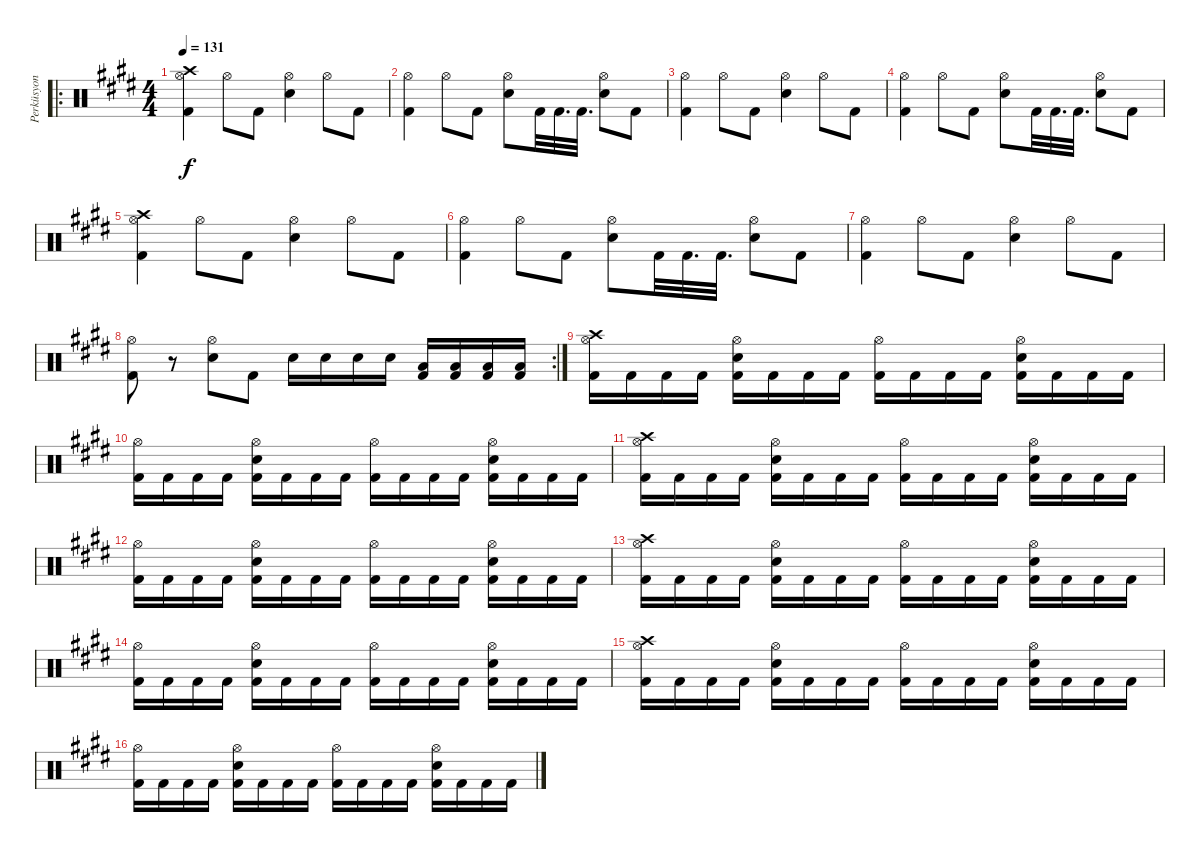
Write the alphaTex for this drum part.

\track ("Perküsyon" "Perküsyon") {instrument percussion}
\staff {score}
\articulation defaults
\ro
\ts (4 4)
\tempo 131
\clef neutral
\ks e
("Hi-Hat (open)" "Crash high (hit)" "Kick (hit) 2").4{dy f} "Hi-Hat (open)".8 "Kick (hit) 2".8 ("Hi-Hat (open)" "Snare (hit) 2").4 "Hi-Hat (open)".8 "Kick (hit) 2".8 |
\ks c#minor
("Hi-Hat (open)" "Kick (hit) 2").4 "Hi-Hat (open)".8 "Kick (hit) 2".8 ("Hi-Hat (open)" "Snare (hit) 2").8 "Kick (hit) 2".32 "Kick (hit) 2".32{d} "Kick (hit) 2".32{d} ("Hi-Hat (open)" "Snare (hit) 2").8 "Kick (hit) 2".8 |
\ks e
("Hi-Hat (open)" "Kick (hit) 2").4 "Hi-Hat (open)".8 "Kick (hit) 2".8 ("Hi-Hat (open)" "Snare (hit) 2").4 "Hi-Hat (open)".8 "Kick (hit) 2".8 |
\ks c#minor
("Hi-Hat (open)" "Kick (hit) 2").4 "Hi-Hat (open)".8 "Kick (hit) 2".8 ("Hi-Hat (open)" "Snare (hit) 2").8 "Kick (hit) 2".32 "Kick (hit) 2".32{d} "Kick (hit) 2".32{d} ("Hi-Hat (open)" "Snare (hit) 2").8 "Kick (hit) 2".8 |
\ks e
("Hi-Hat (open)" "Crash high (hit)" "Kick (hit) 2").4 "Hi-Hat (open)".8 "Kick (hit) 2".8 ("Hi-Hat (open)" "Snare (hit) 2").4 "Hi-Hat (open)".8 "Kick (hit) 2".8 |
\ks c#minor
("Hi-Hat (open)" "Kick (hit) 2").4 "Hi-Hat (open)".8 "Kick (hit) 2".8 ("Hi-Hat (open)" "Snare (hit) 2").8 "Kick (hit) 2".32 "Kick (hit) 2".32{d} "Kick (hit) 2".32{d} ("Hi-Hat (open)" "Snare (hit) 2").8 "Kick (hit) 2".8 |
\ks e
("Hi-Hat (open)" "Kick (hit) 2").4 "Hi-Hat (open)".8 "Kick (hit) 2".8 ("Hi-Hat (open)" "Snare (hit) 2").4 "Hi-Hat (open)".8 "Kick (hit) 2".8 |
\rc 2
\ks c#minor
("Hi-Hat (open)" "Kick (hit) 2").8 r.8 ("Hi-Hat (open)" "Snare (hit) 2").8 "Kick (hit) 2".8 "Snare (hit) 2".16 "Snare (hit) 2".16 "Snare (hit) 2".16 "Snare (hit) 2".16 ("Low Tom (hit)" "Kick (hit) 2").16 ("Low Tom (hit)" "Kick (hit) 2").16 ("Low Tom (hit)" "Kick (hit) 2").16 ("Low Tom (hit)" "Kick (hit) 2").16 |
\ks e
("Crash high (hit)" "Hi-Hat (open)" "Kick (hit) 2").16 "Kick (hit) 2".16 "Kick (hit) 2".16 "Kick (hit) 2".16 ("Hi-Hat (open)" "Snare (hit) 2" "Kick (hit) 2").16 "Kick (hit) 2".16 "Kick (hit) 2".16 "Kick (hit) 2".16 ("Hi-Hat (open)" "Kick (hit) 2").16 "Kick (hit) 2".16 "Kick (hit) 2".16 "Kick (hit) 2".16 ("Hi-Hat (open)" "Snare (hit) 2" "Kick (hit) 2").16 "Kick (hit) 2".16 "Kick (hit) 2".16 "Kick (hit) 2".16 |
\ks c#minor
("Hi-Hat (open)" "Kick (hit) 2").16 "Kick (hit) 2".16 "Kick (hit) 2".16 "Kick (hit) 2".16 ("Hi-Hat (open)" "Snare (hit) 2" "Kick (hit) 2").16 "Kick (hit) 2".16 "Kick (hit) 2".16 "Kick (hit) 2".16 ("Hi-Hat (open)" "Kick (hit) 2").16 "Kick (hit) 2".16 "Kick (hit) 2".16 "Kick (hit) 2".16 ("Hi-Hat (open)" "Snare (hit) 2" "Kick (hit) 2").16 "Kick (hit) 2".16 "Kick (hit) 2".16 "Kick (hit) 2".16 |
\ks e
("Crash high (hit)" "Hi-Hat (open)" "Kick (hit) 2").16 "Kick (hit) 2".16 "Kick (hit) 2".16 "Kick (hit) 2".16 ("Hi-Hat (open)" "Snare (hit) 2" "Kick (hit) 2").16 "Kick (hit) 2".16 "Kick (hit) 2".16 "Kick (hit) 2".16 ("Hi-Hat (open)" "Kick (hit) 2").16 "Kick (hit) 2".16 "Kick (hit) 2".16 "Kick (hit) 2".16 ("Hi-Hat (open)" "Snare (hit) 2" "Kick (hit) 2").16 "Kick (hit) 2".16 "Kick (hit) 2".16 "Kick (hit) 2".16 |
\ks c#minor
("Hi-Hat (open)" "Kick (hit) 2").16 "Kick (hit) 2".16 "Kick (hit) 2".16 "Kick (hit) 2".16 ("Hi-Hat (open)" "Snare (hit) 2" "Kick (hit) 2").16 "Kick (hit) 2".16 "Kick (hit) 2".16 "Kick (hit) 2".16 ("Hi-Hat (open)" "Kick (hit) 2").16 "Kick (hit) 2".16 "Kick (hit) 2".16 "Kick (hit) 2".16 ("Hi-Hat (open)" "Snare (hit) 2" "Kick (hit) 2").16 "Kick (hit) 2".16 "Kick (hit) 2".16 "Kick (hit) 2".16 |
\ks e
("Crash high (hit)" "Hi-Hat (open)" "Kick (hit) 2").16 "Kick (hit) 2".16 "Kick (hit) 2".16 "Kick (hit) 2".16 ("Hi-Hat (open)" "Snare (hit) 2" "Kick (hit) 2").16 "Kick (hit) 2".16 "Kick (hit) 2".16 "Kick (hit) 2".16 ("Hi-Hat (open)" "Kick (hit) 2").16 "Kick (hit) 2".16 "Kick (hit) 2".16 "Kick (hit) 2".16 ("Hi-Hat (open)" "Snare (hit) 2" "Kick (hit) 2").16 "Kick (hit) 2".16 "Kick (hit) 2".16 "Kick (hit) 2".16 |
\ks c#minor
("Hi-Hat (open)" "Kick (hit) 2").16 "Kick (hit) 2".16 "Kick (hit) 2".16 "Kick (hit) 2".16 ("Hi-Hat (open)" "Snare (hit) 2" "Kick (hit) 2").16 "Kick (hit) 2".16 "Kick (hit) 2".16 "Kick (hit) 2".16 ("Hi-Hat (open)" "Kick (hit) 2").16 "Kick (hit) 2".16 "Kick (hit) 2".16 "Kick (hit) 2".16 ("Hi-Hat (open)" "Snare (hit) 2" "Kick (hit) 2").16 "Kick (hit) 2".16 "Kick (hit) 2".16 "Kick (hit) 2".16 |
\ks e
("Crash high (hit)" "Hi-Hat (open)" "Kick (hit) 2").16 "Kick (hit) 2".16 "Kick (hit) 2".16 "Kick (hit) 2".16 ("Hi-Hat (open)" "Snare (hit) 2" "Kick (hit) 2").16 "Kick (hit) 2".16 "Kick (hit) 2".16 "Kick (hit) 2".16 ("Hi-Hat (open)" "Kick (hit) 2").16 "Kick (hit) 2".16 "Kick (hit) 2".16 "Kick (hit) 2".16 ("Hi-Hat (open)" "Snare (hit) 2" "Kick (hit) 2").16 "Kick (hit) 2".16 "Kick (hit) 2".16 "Kick (hit) 2".16 |
\ks c#minor
("Hi-Hat (open)" "Kick (hit) 2").16 "Kick (hit) 2".16 "Kick (hit) 2".16 "Kick (hit) 2".16 ("Hi-Hat (open)" "Snare (hit) 2" "Kick (hit) 2").16 "Kick (hit) 2".16 "Kick (hit) 2".16 "Kick (hit) 2".16 ("Hi-Hat (open)" "Kick (hit) 2").16 "Kick (hit) 2".16 "Kick (hit) 2".16 "Kick (hit) 2".16 ("Hi-Hat (open)" "Snare (hit) 2" "Kick (hit) 2").16 "Kick (hit) 2".16 "Kick (hit) 2".16 "Kick (hit) 2".16
